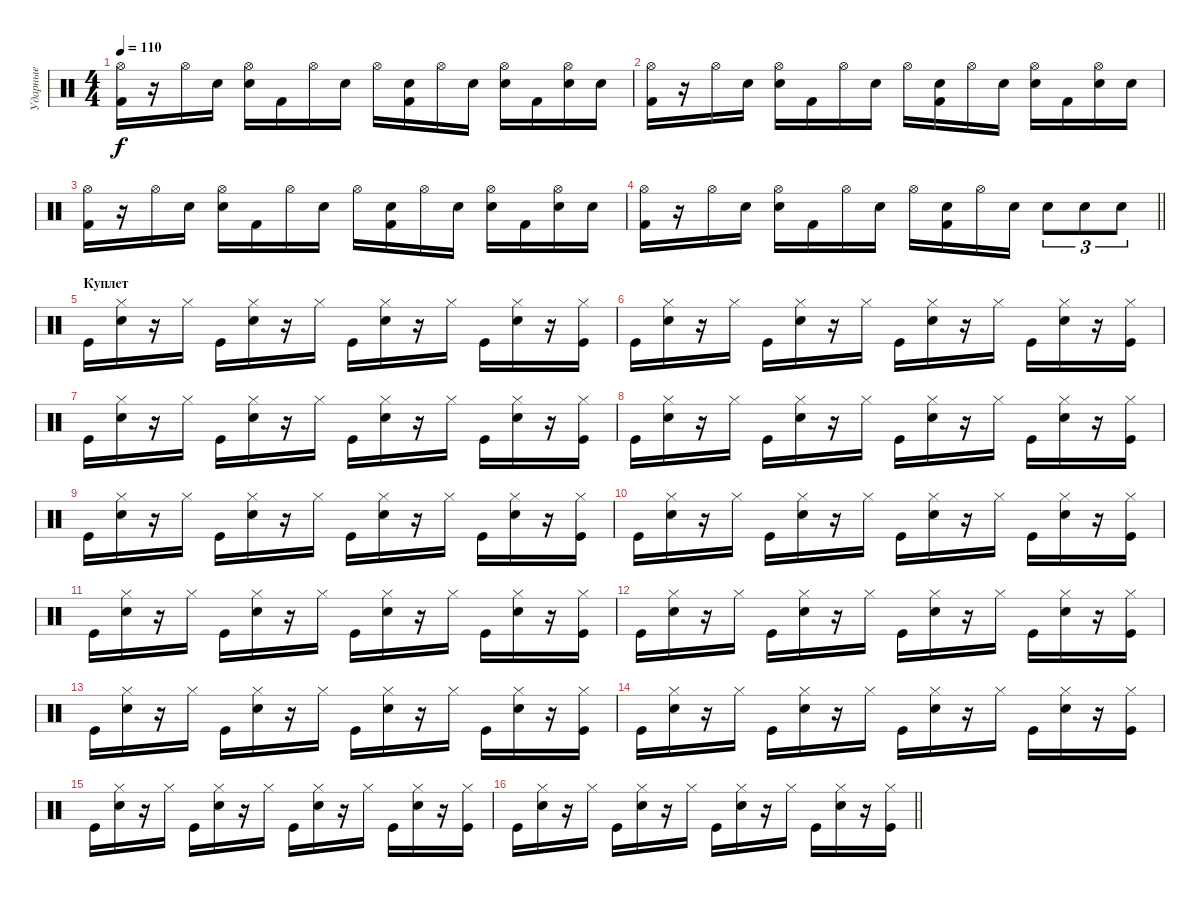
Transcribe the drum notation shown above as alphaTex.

\track ("Ударные" "Ударные") {instrument percussion}
\staff {score}
\articulation defaults
\ts (4 4)
\tempo 110
\clef neutral
\ks c
("Hi-Hat (open)" "Kick (hit) 2").16{dy f} r.16 "Hi-Hat (open)".16 "Electric Snare (hit)".16 ("Hi-Hat (open)" "Electric Snare (hit)").16 "Kick (hit) 2".16 "Hi-Hat (open)".16 "Electric Snare (hit)".16 "Hi-Hat (open)".16 ("Electric Snare (hit)" "Kick (hit) 2").16 "Hi-Hat (open)".16 "Electric Snare (hit)".16 ("Hi-Hat (open)" "Electric Snare (hit)").16 "Kick (hit) 2".16 ("Hi-Hat (open)" "Electric Snare (hit)").16 "Electric Snare (hit)".16 |
("Hi-Hat (open)" "Kick (hit) 2").16 r.16 "Hi-Hat (open)".16 "Electric Snare (hit)".16 ("Hi-Hat (open)" "Electric Snare (hit)").16 "Kick (hit) 2".16 "Hi-Hat (open)".16 "Electric Snare (hit)".16 "Hi-Hat (open)".16 ("Electric Snare (hit)" "Kick (hit) 2").16 "Hi-Hat (open)".16 "Electric Snare (hit)".16 ("Hi-Hat (open)" "Electric Snare (hit)").16 "Kick (hit) 2".16 ("Hi-Hat (open)" "Electric Snare (hit)").16 "Electric Snare (hit)".16 |
("Hi-Hat (open)" "Kick (hit) 2").16 r.16 "Hi-Hat (open)".16 "Electric Snare (hit)".16 ("Hi-Hat (open)" "Electric Snare (hit)").16 "Kick (hit) 2".16 "Hi-Hat (open)".16 "Electric Snare (hit)".16 "Hi-Hat (open)".16 ("Electric Snare (hit)" "Kick (hit) 2").16 "Hi-Hat (open)".16 "Electric Snare (hit)".16 ("Hi-Hat (open)" "Electric Snare (hit)").16 "Kick (hit) 2".16 ("Hi-Hat (open)" "Electric Snare (hit)").16 "Electric Snare (hit)".16 |
\barLineRight lightlight
("Hi-Hat (open)" "Kick (hit) 2").16 r.16 "Hi-Hat (open)".16 "Electric Snare (hit)".16 ("Hi-Hat (open)" "Electric Snare (hit)").16 "Kick (hit) 2".16 "Hi-Hat (open)".16 "Electric Snare (hit)".16 "Hi-Hat (open)".16 ("Electric Snare (hit)" "Kick (hit) 2").16 "Hi-Hat (open)".16 "Electric Snare (hit)".16 "Electric Snare (hit)".8{tu (3 2)} "Electric Snare (hit)".8{tu (3 2)} "Electric Snare (hit)".8{tu (3 2)} |
\section ("" "Куплет")
"Kick (hit)".16 ("Hi-Hat (closed)" "Electric Snare (hit)").16 r.16 "Hi-Hat (closed)".16 "Kick (hit)".16 ("Hi-Hat (closed)" "Electric Snare (hit)").16 r.16 "Hi-Hat (closed)".16 "Kick (hit)".16 ("Hi-Hat (closed)" "Electric Snare (hit)").16 r.16 "Hi-Hat (closed)".16 "Kick (hit)".16 ("Hi-Hat (closed)" "Electric Snare (hit)").16 r.16 ("Hi-Hat (closed)" "Kick (hit)").16 |
"Kick (hit)".16 ("Hi-Hat (closed)" "Electric Snare (hit)").16 r.16 "Hi-Hat (closed)".16 "Kick (hit)".16 ("Hi-Hat (closed)" "Electric Snare (hit)").16 r.16 "Hi-Hat (closed)".16 "Kick (hit)".16 ("Hi-Hat (closed)" "Electric Snare (hit)").16 r.16 "Hi-Hat (closed)".16 "Kick (hit)".16 ("Hi-Hat (closed)" "Electric Snare (hit)").16 r.16 ("Hi-Hat (closed)" "Kick (hit)").16 |
"Kick (hit)".16 ("Hi-Hat (closed)" "Electric Snare (hit)").16 r.16 "Hi-Hat (closed)".16 "Kick (hit)".16 ("Hi-Hat (closed)" "Electric Snare (hit)").16 r.16 "Hi-Hat (closed)".16 "Kick (hit)".16 ("Hi-Hat (closed)" "Electric Snare (hit)").16 r.16 "Hi-Hat (closed)".16 "Kick (hit)".16 ("Hi-Hat (closed)" "Electric Snare (hit)").16 r.16 ("Hi-Hat (closed)" "Kick (hit)").16 |
"Kick (hit)".16 ("Hi-Hat (closed)" "Electric Snare (hit)").16 r.16 "Hi-Hat (closed)".16 "Kick (hit)".16 ("Hi-Hat (closed)" "Electric Snare (hit)").16 r.16 "Hi-Hat (closed)".16 "Kick (hit)".16 ("Hi-Hat (closed)" "Electric Snare (hit)").16 r.16 "Hi-Hat (closed)".16 "Kick (hit)".16 ("Hi-Hat (closed)" "Electric Snare (hit)").16 r.16 ("Hi-Hat (closed)" "Kick (hit)").16 |
"Kick (hit)".16 ("Hi-Hat (closed)" "Electric Snare (hit)").16 r.16 "Hi-Hat (closed)".16 "Kick (hit)".16 ("Hi-Hat (closed)" "Electric Snare (hit)").16 r.16 "Hi-Hat (closed)".16 "Kick (hit)".16 ("Hi-Hat (closed)" "Electric Snare (hit)").16 r.16 "Hi-Hat (closed)".16 "Kick (hit)".16 ("Hi-Hat (closed)" "Electric Snare (hit)").16 r.16 ("Hi-Hat (closed)" "Kick (hit)").16 |
"Kick (hit)".16 ("Hi-Hat (closed)" "Electric Snare (hit)").16 r.16 "Hi-Hat (closed)".16 "Kick (hit)".16 ("Hi-Hat (closed)" "Electric Snare (hit)").16 r.16 "Hi-Hat (closed)".16 "Kick (hit)".16 ("Hi-Hat (closed)" "Electric Snare (hit)").16 r.16 "Hi-Hat (closed)".16 "Kick (hit)".16 ("Hi-Hat (closed)" "Electric Snare (hit)").16 r.16 ("Hi-Hat (closed)" "Kick (hit)").16 |
"Kick (hit)".16 ("Hi-Hat (closed)" "Electric Snare (hit)").16 r.16 "Hi-Hat (closed)".16 "Kick (hit)".16 ("Hi-Hat (closed)" "Electric Snare (hit)").16 r.16 "Hi-Hat (closed)".16 "Kick (hit)".16 ("Hi-Hat (closed)" "Electric Snare (hit)").16 r.16 "Hi-Hat (closed)".16 "Kick (hit)".16 ("Hi-Hat (closed)" "Electric Snare (hit)").16 r.16 ("Hi-Hat (closed)" "Kick (hit)").16 |
"Kick (hit)".16 ("Hi-Hat (closed)" "Electric Snare (hit)").16 r.16 "Hi-Hat (closed)".16 "Kick (hit)".16 ("Hi-Hat (closed)" "Electric Snare (hit)").16 r.16 "Hi-Hat (closed)".16 "Kick (hit)".16 ("Hi-Hat (closed)" "Electric Snare (hit)").16 r.16 "Hi-Hat (closed)".16 "Kick (hit)".16 ("Hi-Hat (closed)" "Electric Snare (hit)").16 r.16 ("Hi-Hat (closed)" "Kick (hit)").16 |
"Kick (hit)".16 ("Hi-Hat (closed)" "Electric Snare (hit)").16 r.16 "Hi-Hat (closed)".16 "Kick (hit)".16 ("Hi-Hat (closed)" "Electric Snare (hit)").16 r.16 "Hi-Hat (closed)".16 "Kick (hit)".16 ("Hi-Hat (closed)" "Electric Snare (hit)").16 r.16 "Hi-Hat (closed)".16 "Kick (hit)".16 ("Hi-Hat (closed)" "Electric Snare (hit)").16 r.16 ("Hi-Hat (closed)" "Kick (hit)").16 |
"Kick (hit)".16 ("Hi-Hat (closed)" "Electric Snare (hit)").16 r.16 "Hi-Hat (closed)".16 "Kick (hit)".16 ("Hi-Hat (closed)" "Electric Snare (hit)").16 r.16 "Hi-Hat (closed)".16 "Kick (hit)".16 ("Hi-Hat (closed)" "Electric Snare (hit)").16 r.16 "Hi-Hat (closed)".16 "Kick (hit)".16 ("Hi-Hat (closed)" "Electric Snare (hit)").16 r.16 ("Hi-Hat (closed)" "Kick (hit)").16 |
"Kick (hit)".16 ("Hi-Hat (closed)" "Electric Snare (hit)").16 r.16 "Hi-Hat (closed)".16 "Kick (hit)".16 ("Hi-Hat (closed)" "Electric Snare (hit)").16 r.16 "Hi-Hat (closed)".16 "Kick (hit)".16 ("Hi-Hat (closed)" "Electric Snare (hit)").16 r.16 "Hi-Hat (closed)".16 "Kick (hit)".16 ("Hi-Hat (closed)" "Electric Snare (hit)").16 r.16 ("Hi-Hat (closed)" "Kick (hit)").16 |
\barLineRight lightlight "Kick (hit)".16
("Hi-Hat (closed)" "Electric Snare (hit)").16 r.16 "Hi-Hat (closed)".16 "Kick (hit)".16 ("Hi-Hat (closed)" "Electric Snare (hit)").16 r.16 "Hi-Hat (closed)".16 "Kick (hit)".16 ("Hi-Hat (closed)" "Electric Snare (hit)").16 r.16 "Hi-Hat (closed)".16 "Kick (hit)".16 ("Hi-Hat (closed)" "Electric Snare (hit)").16 r.16 ("Hi-Hat (closed)" "Kick (hit)").16
